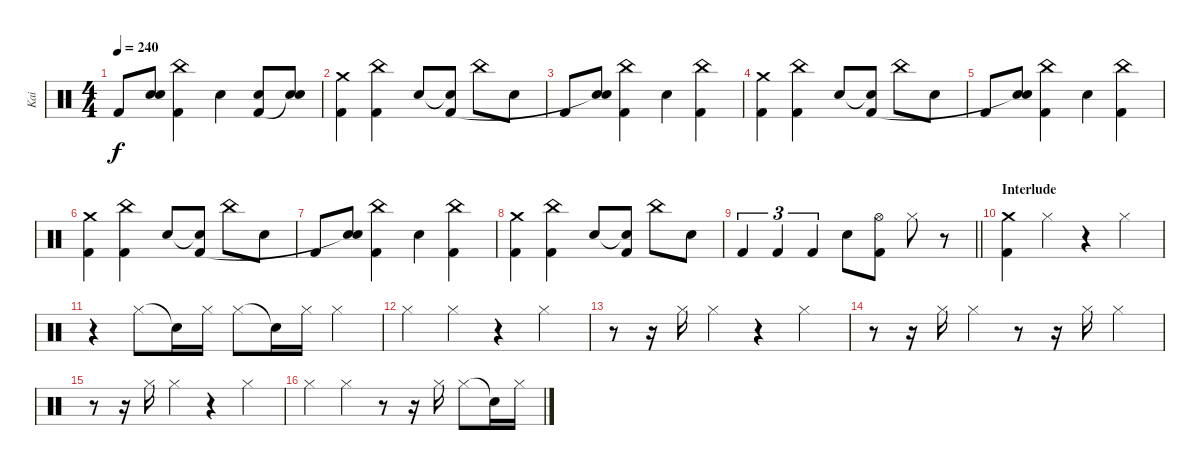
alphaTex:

\track ("Kai" "Kai") {instrument percussion}
\staff {score}
\articulation defaults
\ts (4 4)
\tempo 240
\clef neutral
\ks c "Kick (hit) 2".8{dy f}
("Snare (hit) 2" "Snare (hit)"{t}).8 ("China (hit)" "Kick (hit) 2").4 "Snare (hit) 2".4 ("Snare (hit) 2" "Kick (hit) 2").8 ("Snare (hit) 2" "Snare (hit)"{t}).8 |
("Crash medium (hit)" "Kick (hit) 2").4 ("China (hit)" "Kick (hit) 2").4 "Snare (hit) 2".8 ("Snare (hit)"{t} "Kick (hit) 2").8 "China (hit)".8 "Snare (hit) 2".8 |
"Kick (hit) 2".8 ("Snare (hit) 2" "Snare (hit)"{t}).8 ("China (hit)" "Kick (hit) 2").4 "Snare (hit) 2".4 ("China (hit)" "Kick (hit) 2").4 |
("Crash medium (hit)" "Kick (hit) 2").4 ("China (hit)" "Kick (hit) 2").4 "Snare (hit) 2".8 ("Snare (hit)"{t} "Kick (hit) 2").8 "China (hit)".8 "Snare (hit) 2".8 |
"Kick (hit) 2".8 ("Snare (hit) 2" "Snare (hit)"{t}).8 ("China (hit)" "Kick (hit) 2").4 "Snare (hit) 2".4 ("China (hit)" "Kick (hit) 2").4 |
("Crash medium (hit)" "Kick (hit) 2").4 ("China (hit)" "Kick (hit) 2").4 "Snare (hit) 2".8 ("Snare (hit)"{t} "Kick (hit) 2").8 "China (hit)".8 "Snare (hit) 2".8 |
"Kick (hit) 2".8 ("Snare (hit) 2" "Snare (hit)"{t}).8 ("China (hit)" "Kick (hit) 2").4 "Snare (hit) 2".4 ("China (hit)" "Kick (hit) 2").4 |
("Crash medium (hit)" "Kick (hit) 2").4 ("China (hit)" "Kick (hit) 2").4 "Snare (hit) 2".8 ("Snare (hit)"{t} "Kick (hit) 2").8 "China (hit)".8 "Snare (hit) 2".8 |
\barLineRight lightlight "Kick (hit) 2".4{tu (3 2)} "Kick (hit) 2".4{tu (3 2)} "Kick (hit) 2".4{tu (3 2)} "Snare (hit) 2".8
("Hi-Hat (open)" "Kick (hit) 2").8 "Hi-Hat (closed)".8 r.8 |
\section ("" "Interlude")
("Crash medium (hit)" "Kick (hit) 2").4 "Hi-Hat (closed)".4 r.4 "Hi-Hat (closed)".4 |
r.4 "Hi-Hat (closed)".8 "Snare (hit)"{t}.16 "Hi-Hat (closed)".16 "Hi-Hat (closed)".8 "Snare (hit)"{t}.16 "Hi-Hat (closed)".16 "Hi-Hat (closed)".4 |
"Hi-Hat (closed)".4 "Hi-Hat (closed)".4 r.4 "Hi-Hat (closed)".4 |
r.8 r.16 "Hi-Hat (closed)".16 "Hi-Hat (closed)".4 r.4 "Hi-Hat (closed)".4 |
r.8 r.16 "Hi-Hat (closed)".16 "Hi-Hat (closed)".4 r.8 r.16 "Hi-Hat (closed)".16 "Hi-Hat (closed)".4 |
r.8 r.16 "Hi-Hat (closed)".16 "Hi-Hat (closed)".4 r.4 "Hi-Hat (closed)".4 |
"Hi-Hat (closed)".4 "Hi-Hat (closed)".4 r.8 r.16 "Hi-Hat (closed)".16 "Hi-Hat (closed)".8 "Snare (hit)"{t}.16 "Hi-Hat (closed)".16
